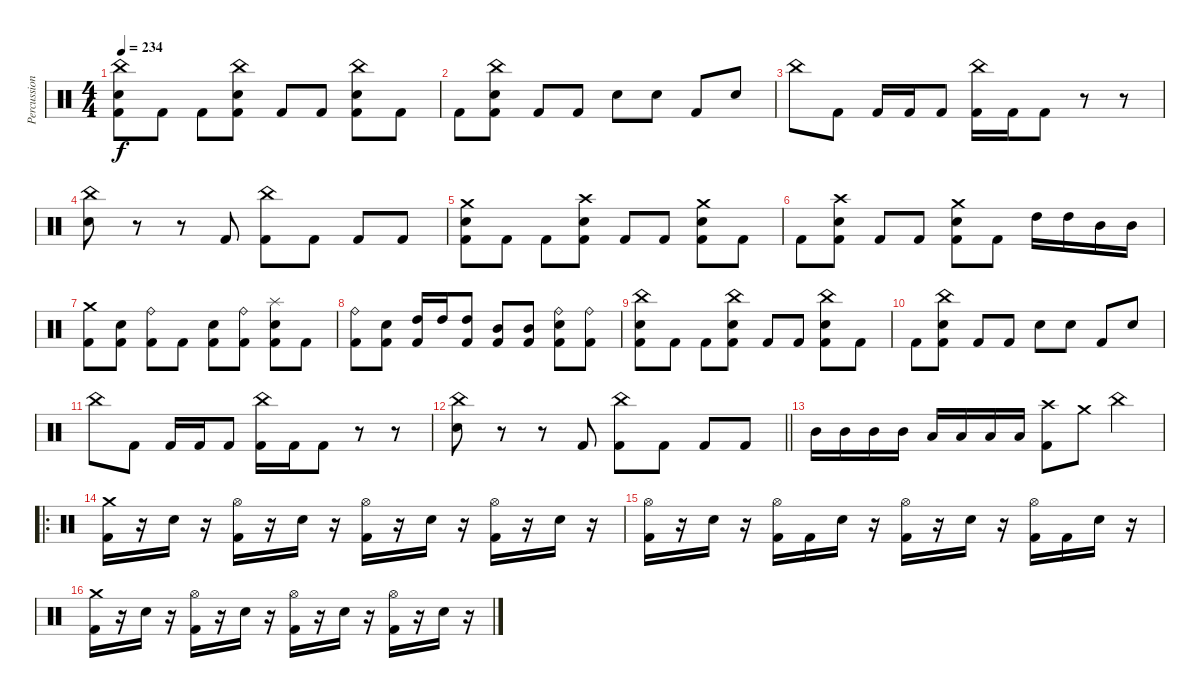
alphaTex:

\track ("Percussion" "Percussion") {instrument percussion}
\staff {score}
\articulation defaults
\ts (4 4)
\tempo 234
\clef neutral
\ks c
("China (hit)" "Electric Snare (hit)" "Kick (hit) 2").8{dy f} "Kick (hit) 2".8 "Kick (hit) 2".8 ("China (hit)" "Electric Snare (hit)" "Kick (hit) 2").8 "Kick (hit) 2".8 "Kick (hit) 2".8 ("China (hit)" "Electric Snare (hit)" "Kick (hit) 2").8 "Kick (hit) 2".8 |
"Kick (hit) 2".8 ("China (hit)" "Electric Snare (hit)" "Kick (hit) 2").8 "Kick (hit) 2".8 "Kick (hit) 2".8 "Electric Snare (hit)".8 "Electric Snare (hit)".8 "Kick (hit) 2".8 "Electric Snare (hit)".8 |
"China (hit)".8 "Kick (hit) 2".8 "Kick (hit) 2".16 "Kick (hit) 2".16 "Kick (hit) 2".8 ("China (hit)" "Kick (hit) 2").16 "Kick (hit) 2".16 "Kick (hit) 2".8 r.8 r.8 |
("China (hit)" "Electric Snare (hit)").8 r.8 r.8 "Kick (hit) 2".8 ("China (hit)" "Kick (hit) 2").8 "Kick (hit) 2".8 "Kick (hit) 2".8 "Kick (hit) 2".8 |
("Crash medium (hit)" "Electric Snare (hit)" "Kick (hit) 2").8 "Kick (hit) 2".8 "Kick (hit) 2".8 ("Crash high (hit)" "Electric Snare (hit)" "Kick (hit) 2").8 "Kick (hit) 2".8 "Kick (hit) 2".8 ("Crash medium (hit)" "Electric Snare (hit)" "Kick (hit) 2").8 "Kick (hit) 2".8 |
"Kick (hit) 2".8 ("Crash high (hit)" "Electric Snare (hit)" "Kick (hit) 2").8 "Kick (hit) 2".8 "Kick (hit) 2".8 ("Crash medium (hit)" "Electric Snare (hit)" "Kick (hit) 2").8 "Kick (hit) 2".8 "High Tom (hit)".16 "High Tom (hit)".16 "Mid Tom (hit)".16 "Mid Tom (hit)".16 |
("Crash medium (hit)" "Kick (hit) 2").8 ("Electric Snare (hit)" "Kick (hit) 2").8 ("Ride (bell)" "Kick (hit) 2").8 "Kick (hit) 2".8 ("Electric Snare (hit)" "Kick (hit) 2").8 ("Ride (bell)" "Kick (hit) 2").8 ("Splash (hit)" "Electric Snare (hit)" "Kick (hit) 2").8 "Kick (hit) 2".8 |
("Ride (bell)" "Kick (hit) 2").8 ("Electric Snare (hit)" "Kick (hit) 2").8 ("High Tom (hit)" "Kick (hit) 2").16 "High Tom (hit)".16 ("High Tom (hit)" "Kick (hit) 2").8 ("Mid Tom (hit)" "Kick (hit) 2").8 ("Mid Tom (hit)" "Kick (hit) 2").8 ("Ride (bell)" "Electric Snare (hit)" "Kick (hit) 2").8 ("Ride (bell)" "Kick (hit) 2").8 |
("China (hit)" "Electric Snare (hit)" "Kick (hit) 2").8 "Kick (hit) 2".8 "Kick (hit) 2".8 ("China (hit)" "Electric Snare (hit)" "Kick (hit) 2").8 "Kick (hit) 2".8 "Kick (hit) 2".8 ("China (hit)" "Electric Snare (hit)" "Kick (hit) 2").8 "Kick (hit) 2".8 |
"Kick (hit) 2".8 ("China (hit)" "Electric Snare (hit)" "Kick (hit) 2").8 "Kick (hit) 2".8 "Kick (hit) 2".8 "Electric Snare (hit)".8 "Electric Snare (hit)".8 "Kick (hit) 2".8 "Electric Snare (hit)".8 |
"China (hit)".8 "Kick (hit) 2".8 "Kick (hit) 2".16 "Kick (hit) 2".16 "Kick (hit) 2".8 ("China (hit)" "Kick (hit) 2").16 "Kick (hit) 2".16 "Kick (hit) 2".8 r.8 r.8 |
\barLineRight lightlight
("China (hit)" "Electric Snare (hit)").8 r.8 r.8 "Kick (hit) 2".8 ("China (hit)" "Kick (hit) 2").8 "Kick (hit) 2".8 "Kick (hit) 2".8 "Kick (hit) 2".8 |
"Mid Tom (hit)".16 "Mid Tom (hit)".16 "Mid Tom (hit)".16 "Mid Tom (hit)".16 "Low Tom (hit)".16 "Low Tom (hit)".16 "Low Tom (hit)".16 "Low Tom (hit)".16 ("Crash high (hit)" "Kick (hit) 2").8 "Crash medium (hit)".8 "China (hit)".4 |
\ro
("Crash medium (hit)" "Kick (hit) 2").16 r.16 "Electric Snare (hit)".16 r.16 ("Hi-Hat (open)" "Kick (hit) 2").16 r.16 "Electric Snare (hit)".16 r.16 ("Hi-Hat (open)" "Kick (hit) 2").16 r.16 "Electric Snare (hit)".16 r.16 ("Hi-Hat (open)" "Kick (hit) 2").16 r.16 "Electric Snare (hit)".16 r.16 |
("Hi-Hat (open)" "Kick (hit) 2").16 r.16 "Electric Snare (hit)".16 r.16 ("Hi-Hat (open)" "Kick (hit) 2").16 "Kick (hit) 2".16 "Electric Snare (hit)".16 r.16 ("Hi-Hat (open)" "Kick (hit) 2").16 r.16 "Electric Snare (hit)".16 r.16 ("Hi-Hat (open)" "Kick (hit) 2").16 "Kick (hit) 2".16 "Electric Snare (hit)".16 r.16 |
("Crash medium (hit)" "Kick (hit) 2").16 r.16 "Electric Snare (hit)".16 r.16 ("Hi-Hat (open)" "Kick (hit) 2").16 r.16 "Electric Snare (hit)".16 r.16 ("Hi-Hat (open)" "Kick (hit) 2").16 r.16 "Electric Snare (hit)".16 r.16 ("Hi-Hat (open)" "Kick (hit) 2").16 r.16 "Electric Snare (hit)".16 r.16
